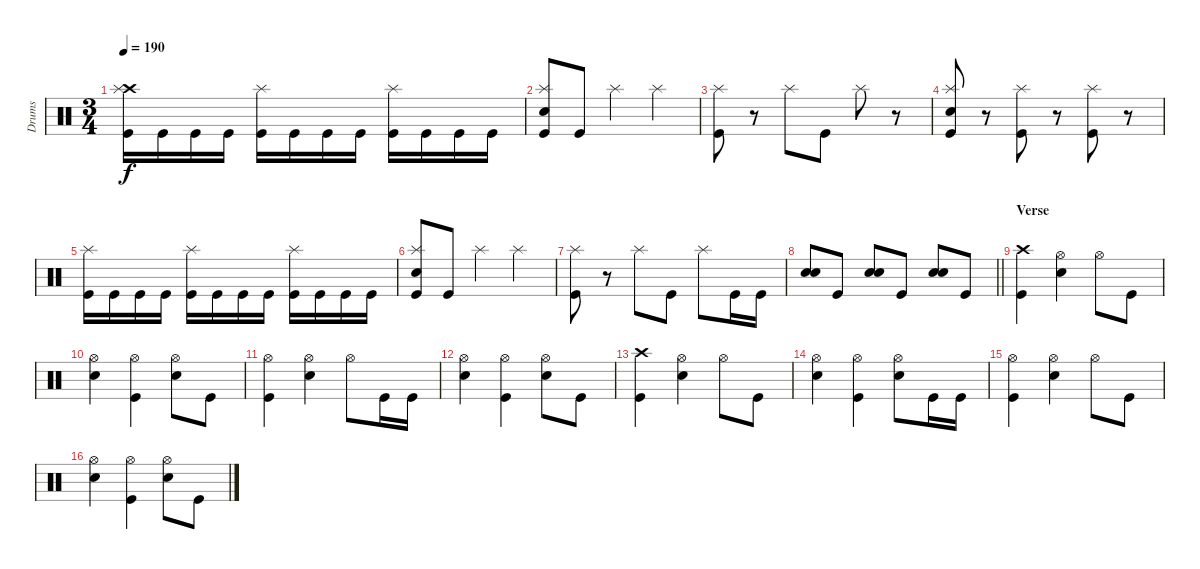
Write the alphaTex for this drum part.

\track ("Drums" "Drums") {instrument percussion}
\staff {score}
\articulation defaults
\ts (3 4)
\tempo 190
\clef neutral
\ks c
("Kick (hit)" "Crash high (hit)" "Splash (hit)").16{dy f} "Kick (hit)".16 "Kick (hit)".16 "Kick (hit)".16 ("Kick (hit)" "Splash (hit)").16 "Kick (hit)".16 "Kick (hit)".16 "Kick (hit)".16 ("Kick (hit)" "Splash (hit)").16 "Kick (hit)".16 "Kick (hit)".16 "Kick (hit)".16 |
("Kick (hit)" "Splash (hit)" "Snare (hit) 2").8 "Kick (hit)".8 "Splash (hit)".4 "Splash (hit)".4 |
("Kick (hit)" "Splash (hit)").8 r.8 "Splash (hit)".8 "Kick (hit)".8 "Splash (hit)".8 r.8 |
("Kick (hit)" "Splash (hit)" "Snare (hit) 2").8 r.8 ("Kick (hit)" "Splash (hit)").8 r.8 ("Kick (hit)" "Splash (hit)").8 r.8 |
("Kick (hit)" "Splash (hit)").16 "Kick (hit)".16 "Kick (hit)".16 "Kick (hit)".16 ("Kick (hit)" "Splash (hit)").16 "Kick (hit)".16 "Kick (hit)".16 "Kick (hit)".16 ("Kick (hit)" "Splash (hit)").16 "Kick (hit)".16 "Kick (hit)".16 "Kick (hit)".16 |
("Kick (hit)" "Splash (hit)" "Snare (hit) 2").8 "Kick (hit)".8 "Splash (hit)".4 "Splash (hit)".4 |
("Kick (hit)" "Splash (hit)").8 r.8 "Splash (hit)".8 "Kick (hit)".8 "Splash (hit)".8 "Kick (hit)".16 "Kick (hit)".16 |
\barLineRight lightlight
("Snare (hit) 2" "Snare (hit) 2").8 "Kick (hit)".8 ("Snare (hit) 2" "Snare (hit) 2").8 "Kick (hit)".8 ("Snare (hit) 2" "Snare (hit) 2").8 "Kick (hit)".8 |
\section ("" "Verse")
("Kick (hit)" "Crash high (hit)").4 ("Snare (hit) 2" "Hi-Hat (open)").4 "Hi-Hat (open)".8 "Kick (hit)".8 |
("Snare (hit) 2" "Hi-Hat (open)").4 ("Kick (hit)" "Hi-Hat (open)").4 ("Snare (hit) 2" "Hi-Hat (open)").8 "Kick (hit)".8 |
("Kick (hit)" "Hi-Hat (open)").4 ("Snare (hit) 2" "Hi-Hat (open)").4 "Hi-Hat (open)".8 "Kick (hit)".16 "Kick (hit)".16 |
("Snare (hit) 2" "Hi-Hat (open)").4 ("Kick (hit)" "Hi-Hat (open)").4 ("Snare (hit) 2" "Hi-Hat (open)").8 "Kick (hit)".8 |
("Kick (hit)" "Crash high (hit)").4 ("Snare (hit) 2" "Hi-Hat (open)").4 "Hi-Hat (open)".8 "Kick (hit)".8 |
("Snare (hit) 2" "Hi-Hat (open)").4 ("Kick (hit)" "Hi-Hat (open)").4 ("Snare (hit) 2" "Hi-Hat (open)").8 "Kick (hit)".16 "Kick (hit)".16 |
("Kick (hit)" "Hi-Hat (open)").4 ("Snare (hit) 2" "Hi-Hat (open)").4 "Hi-Hat (open)".8 "Kick (hit)".8 |
("Snare (hit) 2" "Hi-Hat (open)").4 ("Kick (hit)" "Hi-Hat (open)").4 ("Snare (hit) 2" "Hi-Hat (open)").8 "Kick (hit)".8
